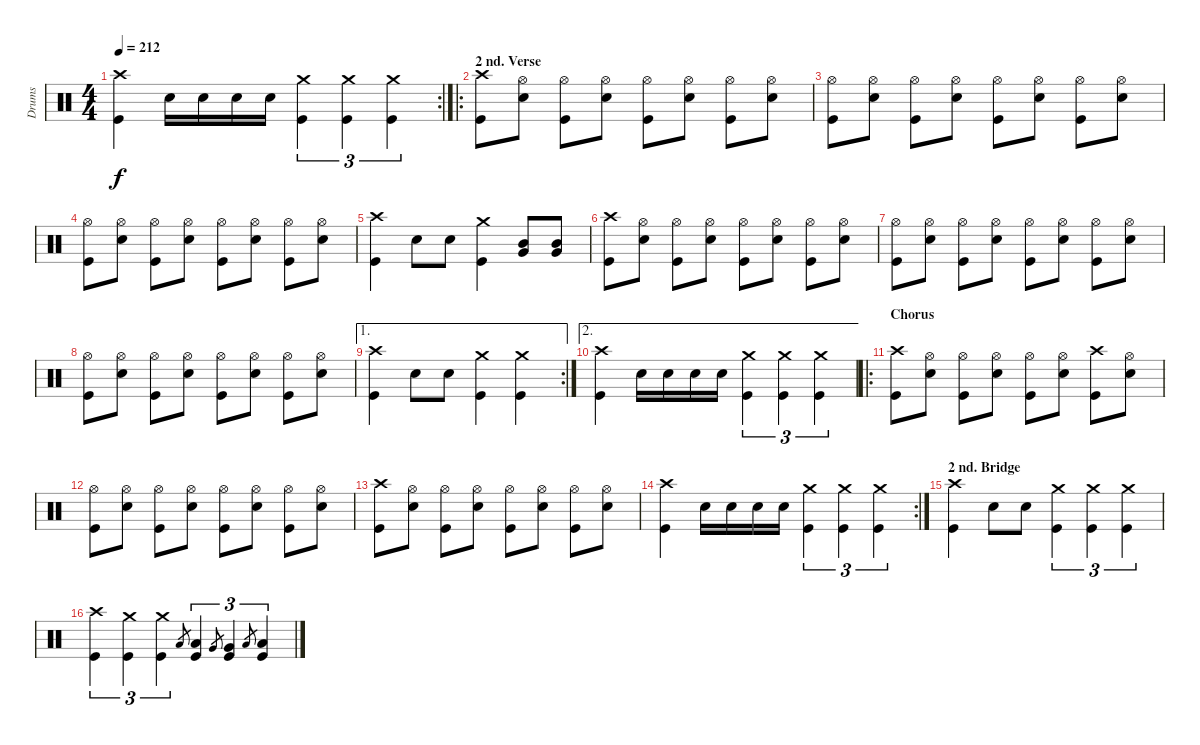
\track ("Drums" "Drums") {instrument percussion}
\staff {score}
\articulation defaults
\rc 2
\ts (4 4)
\tempo 212
\clef neutral
\ks c
("Crash high (hit)" "Kick (hit)").4{dy f} "Snare (hit) 2".16 "Snare (hit) 2".16 "Snare (hit) 2".16 "Snare (hit) 2".16 ("Crash medium (hit)" "Kick (hit)").4{tu (3 2)} ("Crash medium (hit)" "Kick (hit)").4{tu (3 2)} ("Crash medium (hit)" "Kick (hit)").4{tu (3 2)} |
\ro
\section ("" "2 nd. Verse")
("Crash high (hit)" "Kick (hit)").8 ("Hi-Hat (open)" "Snare (hit) 2").8 ("Hi-Hat (open)" "Kick (hit)").8 ("Hi-Hat (open)" "Snare (hit) 2").8 ("Hi-Hat (open)" "Kick (hit)").8 ("Hi-Hat (open)" "Snare (hit) 2").8 ("Hi-Hat (open)" "Kick (hit)").8 ("Hi-Hat (open)" "Snare (hit) 2").8 |
("Hi-Hat (open)" "Kick (hit)").8 ("Hi-Hat (open)" "Snare (hit) 2").8 ("Hi-Hat (open)" "Kick (hit)").8 ("Hi-Hat (open)" "Snare (hit) 2").8 ("Hi-Hat (open)" "Kick (hit)").8 ("Hi-Hat (open)" "Snare (hit) 2").8 ("Hi-Hat (open)" "Kick (hit)").8 ("Hi-Hat (open)" "Snare (hit) 2").8 |
("Hi-Hat (open)" "Kick (hit)").8 ("Hi-Hat (open)" "Snare (hit) 2").8 ("Hi-Hat (open)" "Kick (hit)").8 ("Hi-Hat (open)" "Snare (hit) 2").8 ("Hi-Hat (open)" "Kick (hit)").8 ("Hi-Hat (open)" "Snare (hit) 2").8 ("Hi-Hat (open)" "Kick (hit)").8 ("Hi-Hat (open)" "Snare (hit) 2").8 |
("Crash high (hit)" "Kick (hit)").4 "Snare (hit) 2".8 "Snare (hit) 2".8 ("Crash medium (hit)" "Kick (hit)").4 ("Very Low Tom (hit)" "Mid Tom (hit)").8 ("Very Low Tom (hit)" "Mid Tom (hit)").8 |
("Crash high (hit)" "Kick (hit)").8 ("Hi-Hat (open)" "Snare (hit) 2").8 ("Hi-Hat (open)" "Kick (hit)").8 ("Hi-Hat (open)" "Snare (hit) 2").8 ("Hi-Hat (open)" "Kick (hit)").8 ("Hi-Hat (open)" "Snare (hit) 2").8 ("Hi-Hat (open)" "Kick (hit)").8 ("Hi-Hat (open)" "Snare (hit) 2").8 |
("Hi-Hat (open)" "Kick (hit)").8 ("Hi-Hat (open)" "Snare (hit) 2").8 ("Hi-Hat (open)" "Kick (hit)").8 ("Hi-Hat (open)" "Snare (hit) 2").8 ("Hi-Hat (open)" "Kick (hit)").8 ("Hi-Hat (open)" "Snare (hit) 2").8 ("Hi-Hat (open)" "Kick (hit)").8 ("Hi-Hat (open)" "Snare (hit) 2").8 |
("Hi-Hat (open)" "Kick (hit)").8 ("Hi-Hat (open)" "Snare (hit) 2").8 ("Hi-Hat (open)" "Kick (hit)").8 ("Hi-Hat (open)" "Snare (hit) 2").8 ("Hi-Hat (open)" "Kick (hit)").8 ("Hi-Hat (open)" "Snare (hit) 2").8 ("Hi-Hat (open)" "Kick (hit)").8 ("Hi-Hat (open)" "Snare (hit) 2").8 |
\ae 1
\rc 2
("Crash high (hit)" "Kick (hit)").4 "Snare (hit) 2".8 "Snare (hit) 2".8 ("Crash medium (hit)" "Kick (hit)").4 ("Crash medium (hit)" "Kick (hit)").4 |
\ae 2
("Crash high (hit)" "Kick (hit)").4 "Snare (hit) 2".16 "Snare (hit) 2".16 "Snare (hit) 2".16 "Snare (hit) 2".16 ("Crash medium (hit)" "Kick (hit)").4{tu (3 2)} ("Crash medium (hit)" "Kick (hit)").4{tu (3 2)} ("Crash medium (hit)" "Kick (hit)").4{tu (3 2)} |
\ro
\section ("" "Chorus")
("Crash high (hit)" "Kick (hit)").8 ("Hi-Hat (open)" "Snare (hit) 2").8 ("Hi-Hat (open)" "Kick (hit)").8 ("Hi-Hat (open)" "Snare (hit) 2").8 ("Hi-Hat (open)" "Kick (hit)").8 ("Hi-Hat (open)" "Snare (hit) 2").8 ("Crash high (hit)" "Kick (hit)").8 ("Hi-Hat (open)" "Snare (hit) 2").8 |
("Hi-Hat (open)" "Kick (hit)").8 ("Hi-Hat (open)" "Snare (hit) 2").8 ("Hi-Hat (open)" "Kick (hit)").8 ("Hi-Hat (open)" "Snare (hit) 2").8 ("Hi-Hat (open)" "Kick (hit)").8 ("Hi-Hat (open)" "Snare (hit) 2").8 ("Hi-Hat (open)" "Kick (hit)").8 ("Hi-Hat (open)" "Snare (hit) 2").8 |
("Crash high (hit)" "Kick (hit)").8 ("Hi-Hat (open)" "Snare (hit) 2").8 ("Hi-Hat (open)" "Kick (hit)").8 ("Hi-Hat (open)" "Snare (hit) 2").8 ("Hi-Hat (open)" "Kick (hit)").8 ("Hi-Hat (open)" "Snare (hit) 2").8 ("Hi-Hat (open)" "Kick (hit)").8 ("Hi-Hat (open)" "Snare (hit) 2").8 |
\rc 2
("Crash high (hit)" "Kick (hit)").4 "Snare (hit) 2".16 "Snare (hit) 2".16 "Snare (hit) 2".16 "Snare (hit) 2".16 ("Crash medium (hit)" "Kick (hit)").4{tu (3 2)} ("Crash medium (hit)" "Kick (hit)").4{tu (3 2)} ("Crash medium (hit)" "Kick (hit)").4{tu (3 2)} |
\section ("" "2 nd. Bridge")
("Crash high (hit)" "Kick (hit)").4 "Snare (hit) 2".8 "Snare (hit) 2".8 ("Crash medium (hit)" "Kick (hit)").4{tu (3 2)} ("Crash medium (hit)" "Kick (hit)").4{tu (3 2)} ("Crash medium (hit)" "Kick (hit)").4{tu (3 2)} |
("Crash high (hit)" "Kick (hit)").4{tu (3 2)} ("Crash medium (hit)" "Kick (hit)").4{tu (3 2)} ("Crash medium (hit)" "Kick (hit)").4{tu (3 2)} "Low Tom (hit)".8{gr} ("Low Tom (hit)" "Kick (hit)").4{tu (3 2)} "Very Low Tom (hit)".8{gr} ("Very Low Tom (hit)" "Kick (hit)").4{tu (3 2)} "Low Floor Tom (hit)".8{gr} ("Low Floor Tom (hit)" "Kick (hit)").4{tu (3 2)}
